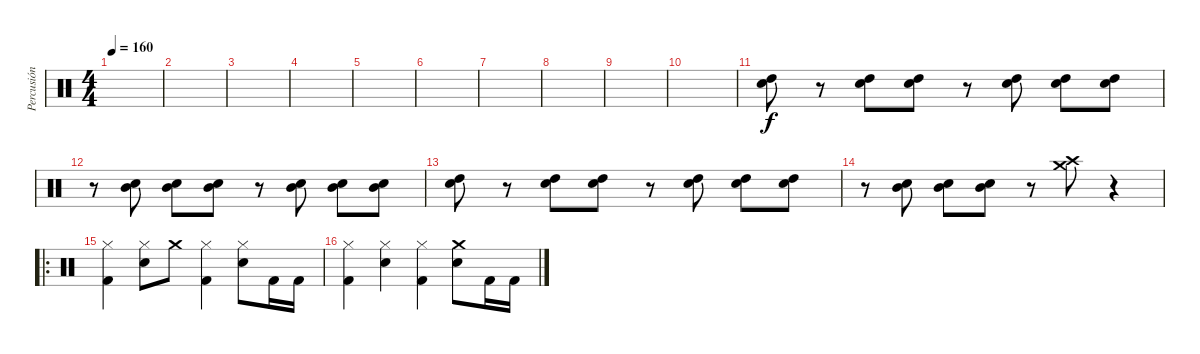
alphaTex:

\track ("Percusión" "Percusión") {instrument percussion}
\staff {score}
\articulation defaults
\ts (4 4)
\tempo 160
\clef neutral
\ks c
|
|
|
|
|
|
|
|
|
|
("High Tom (hit)" "Electric Snare (hit)").8 r.8 ("High Tom (hit)" "Electric Snare (hit)").8 ("High Tom (hit)" "Electric Snare (hit)").8 r.8 ("High Tom (hit)" "Electric Snare (hit)").8 ("High Tom (hit)" "Electric Snare (hit)").8 ("High Tom (hit)" "Electric Snare (hit)").8 |
r.8 ("Mid Tom (hit)" "Electric Snare (hit)").8 ("Mid Tom (hit)" "Electric Snare (hit)").8 ("Mid Tom (hit)" "Electric Snare (hit)").8 r.8 ("Mid Tom (hit)" "Electric Snare (hit)").8 ("Mid Tom (hit)" "Electric Snare (hit)").8 ("Mid Tom (hit)" "Electric Snare (hit)").8 |
("High Tom (hit)" "Electric Snare (hit)").8 r.8 ("High Tom (hit)" "Electric Snare (hit)").8 ("High Tom (hit)" "Electric Snare (hit)").8 r.8 ("High Tom (hit)" "Electric Snare (hit)").8 ("High Tom (hit)" "Electric Snare (hit)").8 ("High Tom (hit)" "Electric Snare (hit)").8 |
r.8 ("Mid Tom (hit)" "Electric Snare (hit)").8 ("Mid Tom (hit)" "Electric Snare (hit)").8 ("Mid Tom (hit)" "Electric Snare (hit)").8 r.8 ("Crash medium (hit)" "Crash high (hit)").8 r.4 |
\ro
("Hi-Hat (closed)" "Kick (hit) 2").4 ("Hi-Hat (closed)" "Electric Snare (hit)").8 "Crash medium (hit)".8 ("Hi-Hat (closed)" "Kick (hit) 2").4 ("Hi-Hat (closed)" "Electric Snare (hit)").8 "Kick (hit) 2".16 "Kick (hit) 2".16 |
("Hi-Hat (closed)" "Kick (hit) 2").4 ("Hi-Hat (closed)" "Electric Snare (hit)").4 ("Hi-Hat (closed)" "Kick (hit) 2").4 ("Crash medium (hit)" "Electric Snare (hit)").8 "Kick (hit) 2".16 "Kick (hit) 2".16
